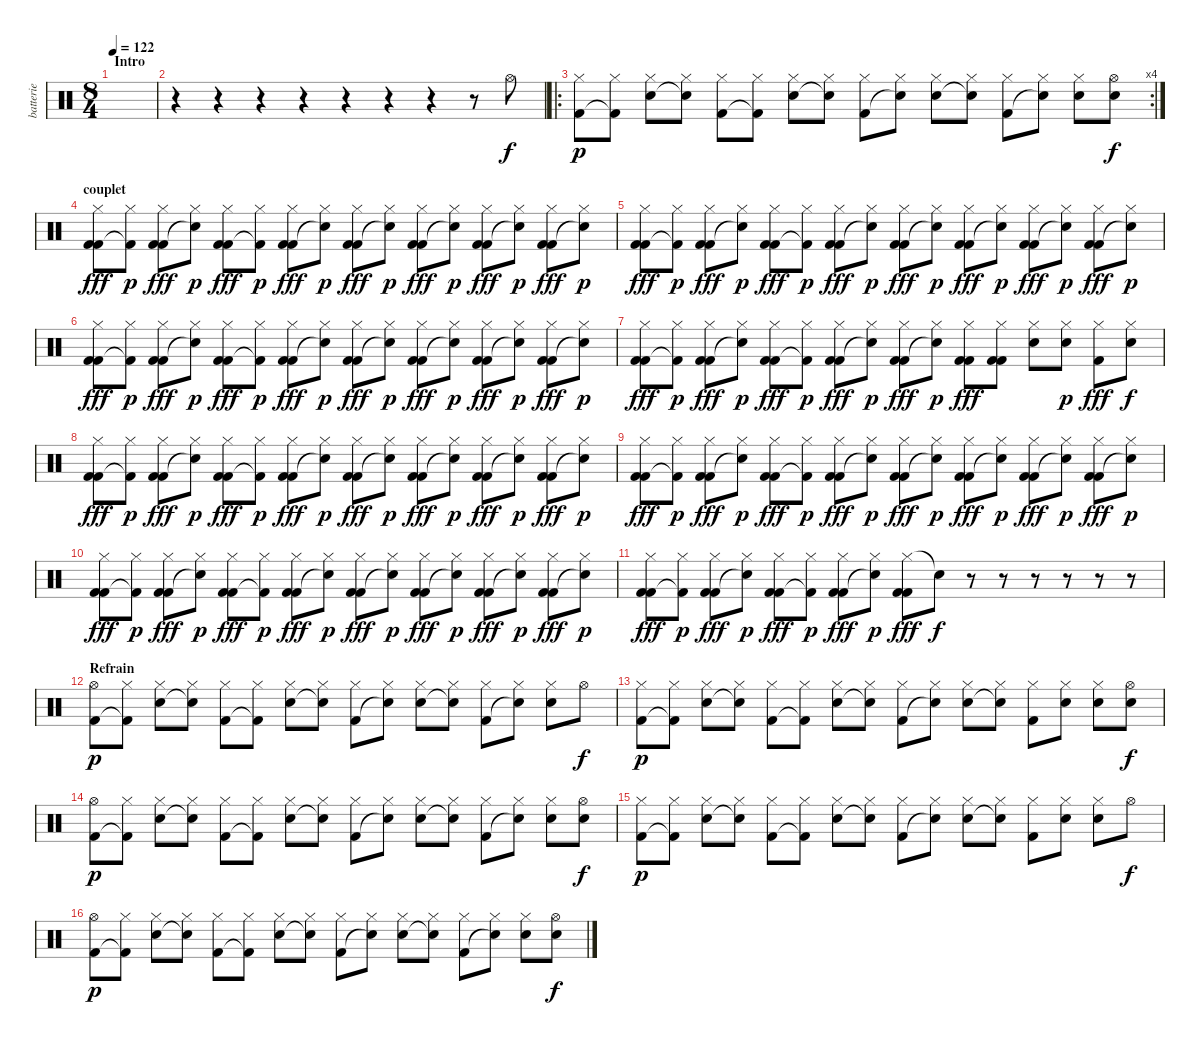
\track ("batterie" "batterie") {instrument percussion}
\staff {score}
\articulation defaults
\ts (8 4)
\section ("" "Intro")
\tempo 122
\clef neutral
\ks c
|
r.4 r.4 r.4 r.4 r.4 r.4 r.4 r.8 "Hi-Hat (open)".8 |
\ro
\rc 4
("Hi-Hat (closed)" "Kick (hit) 2").8{dy p} ("Hi-Hat (closed)" "Kick (hit) 2"{t}).8 ("Hi-Hat (closed)" "Snare (hit) 2").8 ("Hi-Hat (closed)" "Snare (hit) 2"{t}).8 ("Hi-Hat (closed)" "Kick (hit) 2").8 ("Hi-Hat (closed)" "Kick (hit) 2"{t}).8 ("Hi-Hat (closed)" "Snare (hit) 2").8 ("Hi-Hat (closed)" "Snare (hit) 2"{t}).8 ("Hi-Hat (closed)" "Kick (hit) 2").8 ("Hi-Hat (closed)" "Snare (hit)"{t}).8 ("Hi-Hat (closed)" "Snare (hit) 2").8 ("Hi-Hat (closed)" "Snare (hit)"{t}).8 ("Hi-Hat (closed)" "Kick (hit) 2").8 ("Hi-Hat (closed)" "Snare (hit)"{t}).8 ("Hi-Hat (closed)" "Snare (hit) 2").8 ("Hi-Hat (open)" "Snare (hit) 2").8{dy f} |
\section ("" "couplet")
("Hi-Hat (closed)" "Kick (hit) 2" "Kick (hit) 2").8{dy fff} ("Hi-Hat (closed)" "Kick (hit) 2"{t}).8{dy p} ("Hi-Hat (closed)" "Kick (hit) 2" "Kick (hit) 2").8{dy fff} ("Hi-Hat (closed)" "Snare (hit) 2"{t}).8{dy p} ("Hi-Hat (closed)" "Kick (hit) 2" "Kick (hit) 2").8{dy fff} ("Hi-Hat (closed)" "Kick (hit) 2"{t}).8{dy p} ("Hi-Hat (closed)" "Kick (hit) 2" "Kick (hit) 2").8{dy fff} ("Hi-Hat (closed)" "Snare (hit) 2"{t}).8{dy p} ("Hi-Hat (closed)" "Kick (hit) 2" "Kick (hit) 2").8{dy fff} ("Hi-Hat (closed)" "Snare (hit)"{t}).8{dy p} ("Hi-Hat (closed)" "Kick (hit) 2" "Kick (hit) 2").8{dy fff} ("Hi-Hat (closed)" "Snare (hit)"{t}).8{dy p} ("Hi-Hat (closed)" "Kick (hit) 2" "Kick (hit) 2").8{dy fff} ("Hi-Hat (closed)" "Snare (hit)"{t}).8{dy p} ("Hi-Hat (closed)" "Kick (hit) 2" "Kick (hit) 2").8{dy fff} ("Hi-Hat (closed)" "Snare (hit) 2"{t}).8{dy p} |
("Hi-Hat (closed)" "Kick (hit) 2" "Kick (hit) 2").8{dy fff} ("Hi-Hat (closed)" "Kick (hit) 2"{t}).8{dy p} ("Hi-Hat (closed)" "Kick (hit) 2" "Kick (hit) 2").8{dy fff} ("Hi-Hat (closed)" "Snare (hit) 2"{t}).8{dy p} ("Hi-Hat (closed)" "Kick (hit) 2" "Kick (hit) 2").8{dy fff} ("Hi-Hat (closed)" "Kick (hit) 2"{t}).8{dy p} ("Hi-Hat (closed)" "Kick (hit) 2" "Kick (hit) 2").8{dy fff} ("Hi-Hat (closed)" "Snare (hit) 2"{t}).8{dy p} ("Hi-Hat (closed)" "Kick (hit) 2" "Kick (hit) 2").8{dy fff} ("Hi-Hat (closed)" "Snare (hit)"{t}).8{dy p} ("Hi-Hat (closed)" "Kick (hit) 2" "Kick (hit) 2").8{dy fff} ("Hi-Hat (closed)" "Snare (hit)"{t}).8{dy p} ("Hi-Hat (closed)" "Kick (hit) 2" "Kick (hit) 2").8{dy fff} ("Hi-Hat (closed)" "Snare (hit)"{t}).8{dy p} ("Hi-Hat (closed)" "Kick (hit) 2" "Kick (hit) 2").8{dy fff} ("Hi-Hat (closed)" "Snare (hit) 2"{t}).8{dy p} |
("Hi-Hat (closed)" "Kick (hit) 2" "Kick (hit) 2").8{dy fff} ("Hi-Hat (closed)" "Kick (hit) 2"{t}).8{dy p} ("Hi-Hat (closed)" "Kick (hit) 2" "Kick (hit) 2").8{dy fff} ("Hi-Hat (closed)" "Snare (hit) 2"{t}).8{dy p} ("Hi-Hat (closed)" "Kick (hit) 2" "Kick (hit) 2").8{dy fff} ("Hi-Hat (closed)" "Kick (hit) 2"{t}).8{dy p} ("Hi-Hat (closed)" "Kick (hit) 2" "Kick (hit) 2").8{dy fff} ("Hi-Hat (closed)" "Snare (hit) 2"{t}).8{dy p} ("Hi-Hat (closed)" "Kick (hit) 2" "Kick (hit) 2").8{dy fff} ("Hi-Hat (closed)" "Snare (hit)"{t}).8{dy p} ("Hi-Hat (closed)" "Kick (hit) 2" "Kick (hit) 2").8{dy fff} ("Hi-Hat (closed)" "Snare (hit)"{t}).8{dy p} ("Hi-Hat (closed)" "Kick (hit) 2" "Kick (hit) 2").8{dy fff} ("Hi-Hat (closed)" "Snare (hit)"{t}).8{dy p} ("Hi-Hat (closed)" "Kick (hit) 2" "Kick (hit) 2").8{dy fff} ("Hi-Hat (closed)" "Snare (hit) 2"{t}).8{dy p} |
("Hi-Hat (closed)" "Kick (hit) 2" "Kick (hit) 2").8{dy fff} ("Hi-Hat (closed)" "Kick (hit) 2"{t}).8{dy p} ("Hi-Hat (closed)" "Kick (hit) 2" "Kick (hit) 2").8{dy fff} ("Hi-Hat (closed)" "Snare (hit) 2"{t}).8{dy p} ("Hi-Hat (closed)" "Kick (hit) 2" "Kick (hit) 2").8{dy fff} ("Hi-Hat (closed)" "Kick (hit) 2"{t}).8{dy p} ("Hi-Hat (closed)" "Kick (hit) 2" "Kick (hit) 2").8{dy fff} ("Hi-Hat (closed)" "Snare (hit) 2"{t}).8{dy p} ("Hi-Hat (closed)" "Kick (hit) 2" "Kick (hit) 2").8{dy fff} ("Hi-Hat (closed)" "Snare (hit)"{t}).8{dy p} ("Hi-Hat (closed)" "Kick (hit) 2" "Kick (hit) 2").8{dy fff} ("Hi-Hat (closed)" "Kick (hit) 2" "Kick (hit) 2").8 ("Hi-Hat (closed)" "Snare (hit) 2").8 ("Hi-Hat (closed)" "Snare (hit) 2").8{dy p} ("Hi-Hat (closed)" "Kick (hit) 2").8{dy fff} ("Hi-Hat (closed)" "Snare (hit) 2").8{dy f} |
("Hi-Hat (closed)" "Kick (hit) 2" "Kick (hit) 2").8{dy fff} ("Hi-Hat (closed)" "Kick (hit) 2"{t}).8{dy p} ("Hi-Hat (closed)" "Kick (hit) 2" "Kick (hit) 2").8{dy fff} ("Hi-Hat (closed)" "Snare (hit) 2"{t}).8{dy p} ("Hi-Hat (closed)" "Kick (hit) 2" "Kick (hit) 2").8{dy fff} ("Hi-Hat (closed)" "Kick (hit) 2"{t}).8{dy p} ("Hi-Hat (closed)" "Kick (hit) 2" "Kick (hit) 2").8{dy fff} ("Hi-Hat (closed)" "Snare (hit) 2"{t}).8{dy p} ("Hi-Hat (closed)" "Kick (hit) 2" "Kick (hit) 2").8{dy fff} ("Hi-Hat (closed)" "Snare (hit)"{t}).8{dy p} ("Hi-Hat (closed)" "Kick (hit) 2" "Kick (hit) 2").8{dy fff} ("Hi-Hat (closed)" "Snare (hit)"{t}).8{dy p} ("Hi-Hat (closed)" "Kick (hit) 2" "Kick (hit) 2").8{dy fff} ("Hi-Hat (closed)" "Snare (hit)"{t}).8{dy p} ("Hi-Hat (closed)" "Kick (hit) 2" "Kick (hit) 2").8{dy fff} ("Hi-Hat (closed)" "Snare (hit) 2"{t}).8{dy p} |
("Hi-Hat (closed)" "Kick (hit) 2" "Kick (hit) 2").8{dy fff} ("Hi-Hat (closed)" "Kick (hit) 2"{t}).8{dy p} ("Hi-Hat (closed)" "Kick (hit) 2" "Kick (hit) 2").8{dy fff} ("Hi-Hat (closed)" "Snare (hit) 2"{t}).8{dy p} ("Hi-Hat (closed)" "Kick (hit) 2" "Kick (hit) 2").8{dy fff} ("Hi-Hat (closed)" "Kick (hit) 2"{t}).8{dy p} ("Hi-Hat (closed)" "Kick (hit) 2" "Kick (hit) 2").8{dy fff} ("Hi-Hat (closed)" "Snare (hit) 2"{t}).8{dy p} ("Hi-Hat (closed)" "Kick (hit) 2" "Kick (hit) 2").8{dy fff} ("Hi-Hat (closed)" "Snare (hit)"{t}).8{dy p} ("Hi-Hat (closed)" "Kick (hit) 2" "Kick (hit) 2").8{dy fff} ("Hi-Hat (closed)" "Snare (hit)"{t}).8{dy p} ("Hi-Hat (closed)" "Kick (hit) 2" "Kick (hit) 2").8{dy fff} ("Hi-Hat (closed)" "Snare (hit)"{t}).8{dy p} ("Hi-Hat (closed)" "Kick (hit) 2" "Kick (hit) 2").8{dy fff} ("Hi-Hat (closed)" "Snare (hit) 2"{t}).8{dy p} |
("Hi-Hat (closed)" "Kick (hit) 2" "Kick (hit) 2").8{dy fff} ("Hi-Hat (closed)" "Kick (hit) 2"{t}).8{dy p} ("Hi-Hat (closed)" "Kick (hit) 2" "Kick (hit) 2").8{dy fff} ("Hi-Hat (closed)" "Snare (hit) 2"{t}).8{dy p} ("Hi-Hat (closed)" "Kick (hit) 2" "Kick (hit) 2").8{dy fff} ("Hi-Hat (closed)" "Kick (hit) 2"{t}).8{dy p} ("Hi-Hat (closed)" "Kick (hit) 2" "Kick (hit) 2").8{dy fff} ("Hi-Hat (closed)" "Snare (hit) 2"{t}).8{dy p} ("Hi-Hat (closed)" "Kick (hit) 2" "Kick (hit) 2").8{dy fff} ("Hi-Hat (closed)" "Snare (hit)"{t}).8{dy p} ("Hi-Hat (closed)" "Kick (hit) 2" "Kick (hit) 2").8{dy fff} ("Hi-Hat (closed)" "Snare (hit)"{t}).8{dy p} ("Hi-Hat (closed)" "Kick (hit) 2" "Kick (hit) 2").8{dy fff} ("Hi-Hat (closed)" "Snare (hit)"{t}).8{dy p} ("Hi-Hat (closed)" "Kick (hit) 2" "Kick (hit) 2").8{dy fff} ("Hi-Hat (closed)" "Snare (hit) 2"{t}).8{dy p} |
("Hi-Hat (closed)" "Kick (hit) 2" "Kick (hit) 2").8{dy fff} ("Hi-Hat (closed)" "Kick (hit) 2"{t}).8{dy p} ("Hi-Hat (closed)" "Kick (hit) 2" "Kick (hit) 2").8{dy fff} ("Hi-Hat (closed)" "Snare (hit) 2"{t}).8{dy p} ("Hi-Hat (closed)" "Kick (hit) 2" "Kick (hit) 2").8{dy fff} ("Hi-Hat (closed)" "Kick (hit) 2"{t}).8{dy p} ("Hi-Hat (closed)" "Kick (hit) 2" "Kick (hit) 2").8{dy fff} ("Hi-Hat (closed)" "Snare (hit) 2"{t}).8{dy p} ("Hi-Hat (closed)" "Kick (hit) 2" "Kick (hit) 2").8{dy fff} "Snare (hit)"{t}.8{dy f} r.8 r.8 r.8 r.8 r.8 r.8 |
\section ("" "Refrain")
("Hi-Hat (open)" "Kick (hit) 2").8{dy p} ("Hi-Hat (closed)" "Kick (hit) 2"{t}).8 ("Hi-Hat (closed)" "Snare (hit) 2").8 ("Hi-Hat (closed)" "Snare (hit) 2"{t}).8 ("Hi-Hat (closed)" "Kick (hit) 2").8 ("Hi-Hat (closed)" "Kick (hit) 2"{t}).8 ("Hi-Hat (closed)" "Snare (hit) 2").8 ("Hi-Hat (closed)" "Snare (hit) 2"{t}).8 ("Hi-Hat (closed)" "Kick (hit) 2").8 ("Hi-Hat (closed)" "Snare (hit)"{t}).8 ("Hi-Hat (closed)" "Snare (hit) 2").8 ("Hi-Hat (closed)" "Snare (hit)"{t}).8 ("Hi-Hat (closed)" "Kick (hit) 2").8 ("Hi-Hat (closed)" "Snare (hit)"{t}).8 ("Hi-Hat (closed)" "Snare (hit) 2").8 "Hi-Hat (open)".8{dy f} |
("Hi-Hat (closed)" "Kick (hit) 2").8{dy p} ("Hi-Hat (closed)" "Kick (hit) 2"{t}).8 ("Hi-Hat (closed)" "Snare (hit) 2").8 ("Hi-Hat (closed)" "Snare (hit) 2"{t}).8 ("Hi-Hat (closed)" "Kick (hit) 2").8 ("Hi-Hat (closed)" "Kick (hit) 2"{t}).8 ("Hi-Hat (closed)" "Snare (hit) 2").8 ("Hi-Hat (closed)" "Snare (hit) 2"{t}).8 ("Hi-Hat (closed)" "Kick (hit) 2").8 ("Hi-Hat (closed)" "Snare (hit)"{t}).8 ("Hi-Hat (closed)" "Snare (hit) 2").8 ("Hi-Hat (closed)" "Snare (hit)"{t}).8 ("Hi-Hat (closed)" "Kick (hit) 2").8 ("Hi-Hat (closed)" "Snare (hit) 2").8 ("Hi-Hat (closed)" "Snare (hit) 2").8 ("Hi-Hat (open)" "Snare (hit) 2").8{dy f} |
("Hi-Hat (open)" "Kick (hit) 2").8{dy p} ("Hi-Hat (closed)" "Kick (hit) 2"{t}).8 ("Hi-Hat (closed)" "Snare (hit) 2").8 ("Hi-Hat (closed)" "Snare (hit) 2"{t}).8 ("Hi-Hat (closed)" "Kick (hit) 2").8 ("Hi-Hat (closed)" "Kick (hit) 2"{t}).8 ("Hi-Hat (closed)" "Snare (hit) 2").8 ("Hi-Hat (closed)" "Snare (hit) 2"{t}).8 ("Hi-Hat (closed)" "Kick (hit) 2").8 ("Hi-Hat (closed)" "Snare (hit)"{t}).8 ("Hi-Hat (closed)" "Snare (hit) 2").8 ("Hi-Hat (closed)" "Snare (hit)"{t}).8 ("Hi-Hat (closed)" "Kick (hit) 2").8 ("Hi-Hat (closed)" "Snare (hit)"{t}).8 ("Hi-Hat (closed)" "Snare (hit) 2").8 ("Hi-Hat (open)" "Snare (hit) 2").8{dy f} |
("Hi-Hat (closed)" "Kick (hit) 2").8{dy p} ("Hi-Hat (closed)" "Kick (hit) 2"{t}).8 ("Hi-Hat (closed)" "Snare (hit) 2").8 ("Hi-Hat (closed)" "Snare (hit) 2"{t}).8 ("Hi-Hat (closed)" "Kick (hit) 2").8 ("Hi-Hat (closed)" "Kick (hit) 2"{t}).8 ("Hi-Hat (closed)" "Snare (hit) 2").8 ("Hi-Hat (closed)" "Snare (hit) 2"{t}).8 ("Hi-Hat (closed)" "Kick (hit) 2").8 ("Hi-Hat (closed)" "Snare (hit)"{t}).8 ("Hi-Hat (closed)" "Snare (hit) 2").8 ("Hi-Hat (closed)" "Snare (hit)"{t}).8 ("Hi-Hat (closed)" "Kick (hit) 2").8 ("Hi-Hat (closed)" "Snare (hit) 2").8 ("Hi-Hat (closed)" "Snare (hit) 2").8 "Hi-Hat (open)".8{dy f} |
("Hi-Hat (open)" "Kick (hit) 2").8{dy p} ("Hi-Hat (closed)" "Kick (hit) 2"{t}).8 ("Hi-Hat (closed)" "Snare (hit) 2").8 ("Hi-Hat (closed)" "Snare (hit) 2"{t}).8 ("Hi-Hat (closed)" "Kick (hit) 2").8 ("Hi-Hat (closed)" "Kick (hit) 2"{t}).8 ("Hi-Hat (closed)" "Snare (hit) 2").8 ("Hi-Hat (closed)" "Snare (hit) 2"{t}).8 ("Hi-Hat (closed)" "Kick (hit) 2").8 ("Hi-Hat (closed)" "Snare (hit)"{t}).8 ("Hi-Hat (closed)" "Snare (hit) 2").8 ("Hi-Hat (closed)" "Snare (hit)"{t}).8 ("Hi-Hat (closed)" "Kick (hit) 2").8 ("Hi-Hat (closed)" "Snare (hit)"{t}).8 ("Hi-Hat (closed)" "Snare (hit) 2").8 ("Hi-Hat (open)" "Snare (hit) 2").8{dy f}
